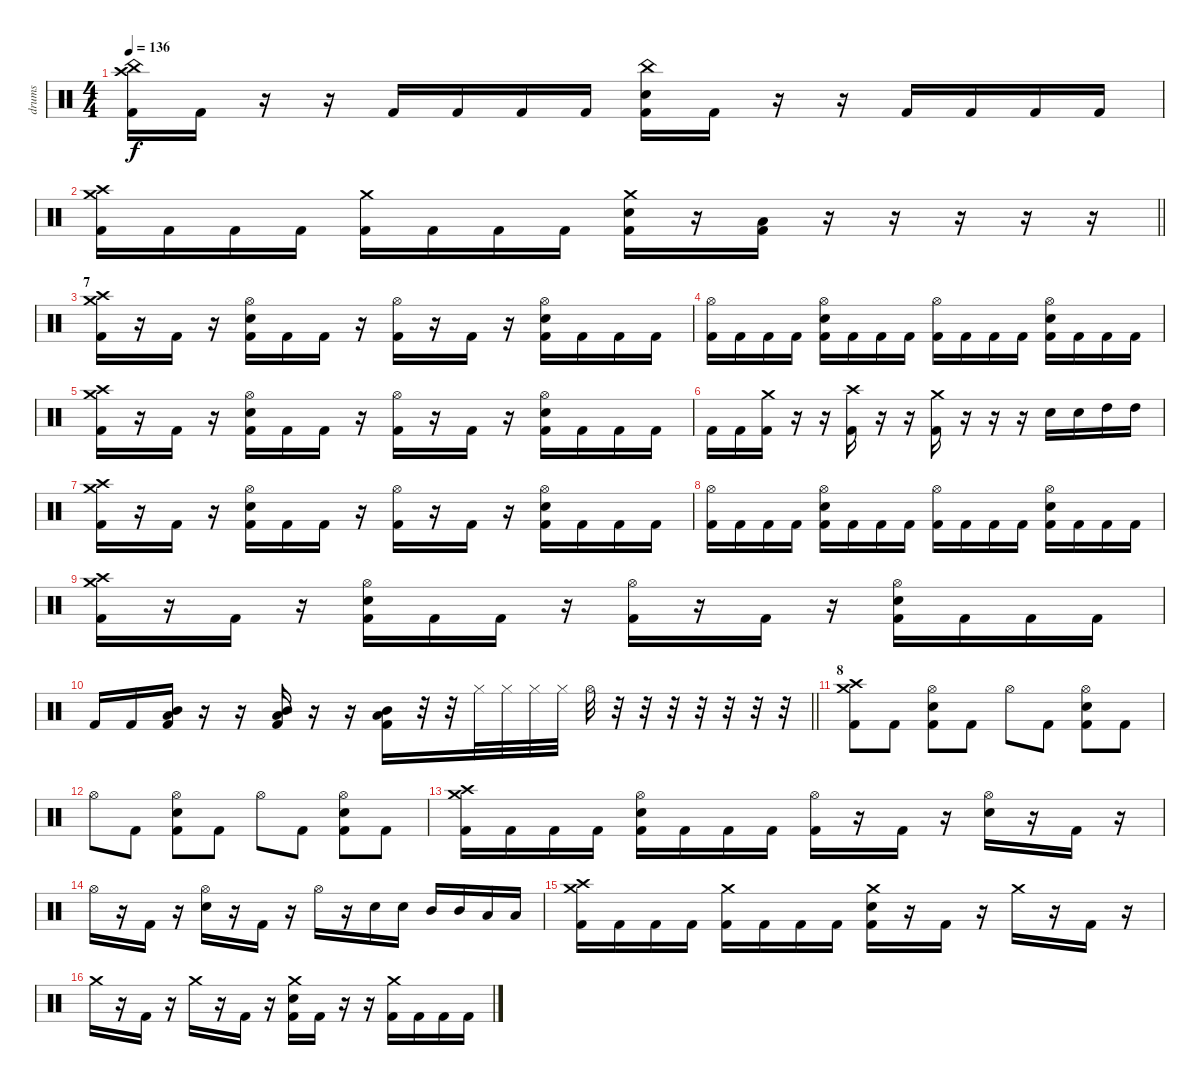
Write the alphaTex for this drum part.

\track ("drums" "drums") {instrument percussion}
\staff {score}
\articulation defaults
\ts (4 4)
\tempo 136
\clef neutral
\ks c
("China (hit)" "Crash high (hit)" "Kick (hit) 2").16{dy f} "Kick (hit) 2".16 r.16 r.16 "Kick (hit) 2".16 "Kick (hit) 2".16 "Kick (hit) 2".16 "Kick (hit) 2".16 ("China (hit)" "Electric Snare (hit)" "Kick (hit) 2").16 "Kick (hit) 2".16 r.16 r.16 "Kick (hit) 2".16 "Kick (hit) 2".16 "Kick (hit) 2".16 "Kick (hit) 2".16 |
\barLineRight lightlight
("Crash medium (hit)" "Crash high (hit)" "Kick (hit) 2").16 "Kick (hit) 2".16 "Kick (hit) 2".16 "Kick (hit) 2".16 ("Crash medium (hit)" "Kick (hit) 2").16 "Kick (hit) 2".16 "Kick (hit) 2".16 "Kick (hit) 2".16 ("Crash medium (hit)" "Electric Snare (hit)" "Kick (hit) 2").16 r.16 ("Low Floor Tom (hit)" "Kick (hit) 2").16 r.16 r.16 r.16 r.16 r.16 |
\section ("" "7")
("Crash medium (hit)" "Crash high (hit)" "Kick (hit) 2").16 r.16 "Kick (hit) 2".16 r.16 ("Hi-Hat (open)" "Electric Snare (hit)" "Kick (hit) 2").16 "Kick (hit) 2".16 "Kick (hit) 2".16 r.16 ("Hi-Hat (open)" "Kick (hit) 2").16 r.16 "Kick (hit) 2".16 r.16 ("Hi-Hat (open)" "Electric Snare (hit)" "Kick (hit) 2").16 "Kick (hit) 2".16 "Kick (hit) 2".16 "Kick (hit) 2".16 |
("Hi-Hat (open)" "Kick (hit) 2").16 "Kick (hit) 2".16 "Kick (hit) 2".16 "Kick (hit) 2".16 ("Hi-Hat (open)" "Electric Snare (hit)" "Kick (hit) 2").16 "Kick (hit) 2".16 "Kick (hit) 2".16 "Kick (hit) 2".16 ("Hi-Hat (open)" "Kick (hit) 2").16 "Kick (hit) 2".16 "Kick (hit) 2".16 "Kick (hit) 2".16 ("Hi-Hat (open)" "Electric Snare (hit)" "Kick (hit) 2").16 "Kick (hit) 2".16 "Kick (hit) 2".16 "Kick (hit) 2".16 |
("Crash medium (hit)" "Crash high (hit)" "Kick (hit) 2").16 r.16 "Kick (hit) 2".16 r.16 ("Hi-Hat (open)" "Electric Snare (hit)" "Kick (hit) 2").16 "Kick (hit) 2".16 "Kick (hit) 2".16 r.16 ("Hi-Hat (open)" "Kick (hit) 2").16 r.16 "Kick (hit) 2".16 r.16 ("Hi-Hat (open)" "Electric Snare (hit)" "Kick (hit) 2").16 "Kick (hit) 2".16 "Kick (hit) 2".16 "Kick (hit) 2".16 |
"Kick (hit) 2".16 "Kick (hit) 2".16 ("Crash medium (hit)" "Kick (hit) 2").16 r.16 r.16 ("Crash high (hit)" "Kick (hit) 2").16 r.16 r.16 ("Crash medium (hit)" "Kick (hit) 2").16 r.16 r.16 r.16 "Electric Snare (hit)".16 "Electric Snare (hit)".16 "High Tom (hit)".16 "High Tom (hit)".16 |
("Crash medium (hit)" "Crash high (hit)" "Kick (hit) 2").16 r.16 "Kick (hit) 2".16 r.16 ("Hi-Hat (open)" "Electric Snare (hit)" "Kick (hit) 2").16 "Kick (hit) 2".16 "Kick (hit) 2".16 r.16 ("Hi-Hat (open)" "Kick (hit) 2").16 r.16 "Kick (hit) 2".16 r.16 ("Hi-Hat (open)" "Electric Snare (hit)" "Kick (hit) 2").16 "Kick (hit) 2".16 "Kick (hit) 2".16 "Kick (hit) 2".16 |
("Hi-Hat (open)" "Kick (hit) 2").16 "Kick (hit) 2".16 "Kick (hit) 2".16 "Kick (hit) 2".16 ("Hi-Hat (open)" "Electric Snare (hit)" "Kick (hit) 2").16 "Kick (hit) 2".16 "Kick (hit) 2".16 "Kick (hit) 2".16 ("Hi-Hat (open)" "Kick (hit) 2").16 "Kick (hit) 2".16 "Kick (hit) 2".16 "Kick (hit) 2".16 ("Hi-Hat (open)" "Electric Snare (hit)" "Kick (hit) 2").16 "Kick (hit) 2".16 "Kick (hit) 2".16 "Kick (hit) 2".16 |
("Crash medium (hit)" "Crash high (hit)" "Kick (hit) 2").16 r.16 "Kick (hit) 2".16 r.16 ("Hi-Hat (open)" "Electric Snare (hit)" "Kick (hit) 2").16 "Kick (hit) 2".16 "Kick (hit) 2".16 r.16 ("Hi-Hat (open)" "Kick (hit) 2").16 r.16 "Kick (hit) 2".16 r.16 ("Hi-Hat (open)" "Electric Snare (hit)" "Kick (hit) 2").16 "Kick (hit) 2".16 "Kick (hit) 2".16 "Kick (hit) 2".16 |
\barLineRight lightlight "Kick (hit) 2".16 "Kick (hit) 2".16
("Mid Tom (hit)" "Low Floor Tom (hit)" "Kick (hit) 2").16 r.16 r.16 ("Mid Tom (hit)" "Low Floor Tom (hit)" "Kick (hit) 2").16 r.16 r.16 ("Mid Tom (hit)" "Low Floor Tom (hit)" "Kick (hit) 2").16 r.32 r.32 "Hi-Hat (closed)".32 "Hi-Hat (closed)".32 "Hi-Hat (closed)".32 "Hi-Hat (closed)".32 "Hi-Hat (open)".32 r.32 r.32 r.32 r.32 r.32 r.32 r.32 |
\section ("" "8")
("Crash medium (hit)" "Crash high (hit)" "Kick (hit) 2").8 "Kick (hit) 2".8 ("Hi-Hat (open)" "Electric Snare (hit)" "Kick (hit) 2").8 "Kick (hit) 2".8 "Hi-Hat (open)".8 "Kick (hit) 2".8 ("Hi-Hat (open)" "Electric Snare (hit)" "Kick (hit) 2").8 "Kick (hit) 2".8 |
"Hi-Hat (open)".8 "Kick (hit) 2".8 ("Hi-Hat (open)" "Electric Snare (hit)" "Kick (hit) 2").8 "Kick (hit) 2".8 "Hi-Hat (open)".8 "Kick (hit) 2".8 ("Hi-Hat (open)" "Electric Snare (hit)" "Kick (hit) 2").8 "Kick (hit) 2".8 |
("Crash medium (hit)" "Crash high (hit)" "Kick (hit) 2").16 "Kick (hit) 2".16 "Kick (hit) 2".16 "Kick (hit) 2".16 ("Hi-Hat (open)" "Electric Snare (hit)" "Kick (hit) 2").16 "Kick (hit) 2".16 "Kick (hit) 2".16 "Kick (hit) 2".16 ("Hi-Hat (open)" "Kick (hit) 2").16 r.16 "Kick (hit) 2".16 r.16 ("Hi-Hat (open)" "Electric Snare (hit)").16 r.16 "Kick (hit) 2".16 r.16 |
"Hi-Hat (open)".16 r.16 "Kick (hit) 2".16 r.16 ("Hi-Hat (open)" "Electric Snare (hit)").16 r.16 "Kick (hit) 2".16 r.16 "Hi-Hat (open)".16 r.16 "Electric Snare (hit)".16 "Electric Snare (hit)".16 "Mid Tom (hit)".16 "Mid Tom (hit)".16 "Low Floor Tom (hit)".16 "Low Floor Tom (hit)".16 |
("Crash medium (hit)" "Crash high (hit)" "Kick (hit) 2").16 "Kick (hit) 2".16 "Kick (hit) 2".16 "Kick (hit) 2".16 ("Crash medium (hit)" "Kick (hit) 2").16 "Kick (hit) 2".16 "Kick (hit) 2".16 "Kick (hit) 2".16 ("Crash medium (hit)" "Electric Snare (hit)" "Kick (hit) 2").16 r.16 "Kick (hit) 2".16 r.16 "Crash medium (hit)".16 r.16 "Kick (hit) 2".16 r.16 |
"Crash medium (hit)".16 r.16 "Kick (hit) 2".16 r.16 "Crash medium (hit)".16 r.16 "Kick (hit) 2".16 r.16 ("Crash medium (hit)" "Electric Snare (hit)" "Kick (hit) 2").16 "Kick (hit) 2".16 r.16 r.16 ("Crash medium (hit)" "Kick (hit) 2").16 "Kick (hit) 2".16 "Kick (hit) 2".16 "Kick (hit) 2".16
